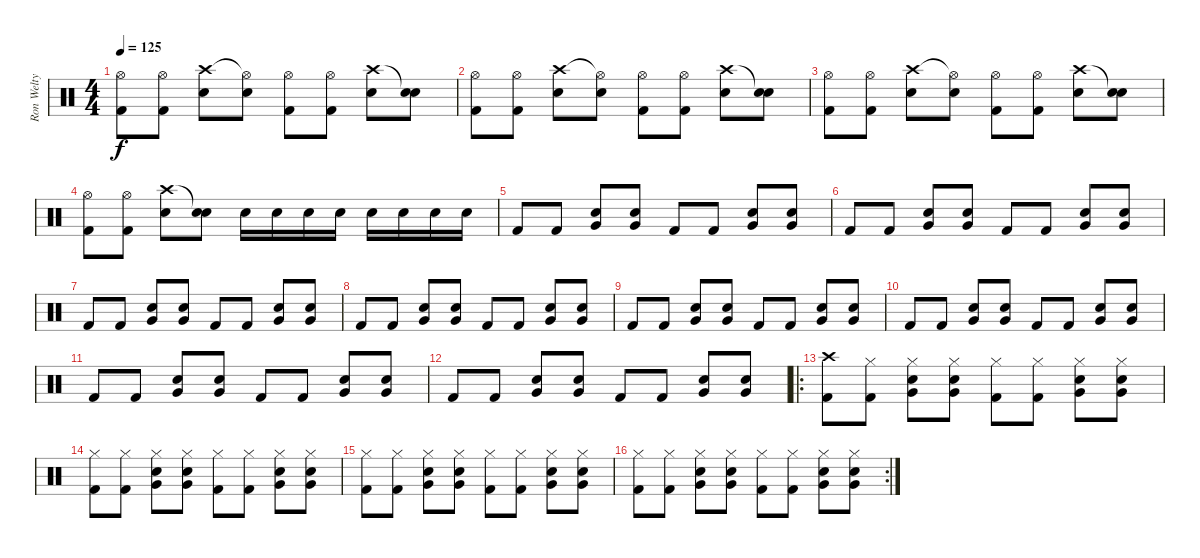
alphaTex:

\track ("Ron Welty" "Ron Welty") {instrument percussion}
\staff {score}
\articulation defaults
\ts (4 4)
\tempo 125
\clef neutral
\ks c
("Kick (hit) 2" "Hi-Hat (open)").8{dy f} ("Kick (hit) 2" "Hi-Hat (open)").8 ("Snare (hit) 2" "Crash high (hit)").8 ("Snare (hit) 2" "Hi-Hat (open)"{t}).8 ("Kick (hit) 2" "Hi-Hat (open)").8 ("Kick (hit) 2" "Hi-Hat (open)").8 ("Snare (hit) 2" "Crash high (hit)").8 ("Snare (hit) 2" "Snare (hit)"{t}).8 |
("Kick (hit) 2" "Hi-Hat (open)").8 ("Kick (hit) 2" "Hi-Hat (open)").8 ("Snare (hit) 2" "Crash high (hit)").8 ("Snare (hit) 2" "Hi-Hat (open)"{t}).8 ("Kick (hit) 2" "Hi-Hat (open)").8 ("Kick (hit) 2" "Hi-Hat (open)").8 ("Snare (hit) 2" "Crash high (hit)").8 ("Snare (hit) 2" "Snare (hit)"{t}).8 |
("Kick (hit) 2" "Hi-Hat (open)").8 ("Kick (hit) 2" "Hi-Hat (open)").8 ("Snare (hit) 2" "Crash high (hit)").8 ("Snare (hit) 2" "Hi-Hat (open)"{t}).8 ("Kick (hit) 2" "Hi-Hat (open)").8 ("Kick (hit) 2" "Hi-Hat (open)").8 ("Snare (hit) 2" "Crash high (hit)").8 ("Snare (hit) 2" "Snare (hit)"{t}).8 |
("Kick (hit) 2" "Hi-Hat (open)").8 ("Kick (hit) 2" "Hi-Hat (open)").8 ("Snare (hit) 2" "Crash high (hit)").8 ("Snare (hit) 2" "Snare (hit)"{t}).8 "Snare (hit) 2".16 "Snare (hit) 2".16 "Snare (hit) 2".16 "Snare (hit) 2".16 "Snare (hit) 2".16 "Snare (hit) 2".16 "Snare (hit) 2".16 "Snare (hit) 2".16 |
"Kick (hit) 2".8 "Kick (hit) 2".8 ("Snare (hit) 2" "Very Low Tom (hit)").8 ("Snare (hit) 2" "Very Low Tom (hit)").8 "Kick (hit) 2".8 "Kick (hit) 2".8 ("Snare (hit) 2" "Very Low Tom (hit)").8 ("Snare (hit) 2" "Very Low Tom (hit)").8 |
"Kick (hit) 2".8 "Kick (hit) 2".8 ("Snare (hit) 2" "Very Low Tom (hit)").8 ("Snare (hit) 2" "Very Low Tom (hit)").8 "Kick (hit) 2".8 "Kick (hit) 2".8 ("Snare (hit) 2" "Very Low Tom (hit)").8 ("Snare (hit) 2" "Very Low Tom (hit)").8 |
"Kick (hit) 2".8 "Kick (hit) 2".8 ("Snare (hit) 2" "Very Low Tom (hit)").8 ("Snare (hit) 2" "Very Low Tom (hit)").8 "Kick (hit) 2".8 "Kick (hit) 2".8 ("Snare (hit) 2" "Very Low Tom (hit)").8 ("Snare (hit) 2" "Very Low Tom (hit)").8 |
"Kick (hit) 2".8 "Kick (hit) 2".8 ("Snare (hit) 2" "Very Low Tom (hit)").8 ("Snare (hit) 2" "Very Low Tom (hit)").8 "Kick (hit) 2".8 "Kick (hit) 2".8 ("Snare (hit) 2" "Very Low Tom (hit)").8 ("Snare (hit) 2" "Very Low Tom (hit)").8 |
"Kick (hit) 2".8 "Kick (hit) 2".8 ("Snare (hit) 2" "Very Low Tom (hit)").8 ("Snare (hit) 2" "Very Low Tom (hit)").8 "Kick (hit) 2".8 "Kick (hit) 2".8 ("Snare (hit) 2" "Very Low Tom (hit)").8 ("Snare (hit) 2" "Very Low Tom (hit)").8 |
"Kick (hit) 2".8 "Kick (hit) 2".8 ("Snare (hit) 2" "Very Low Tom (hit)").8 ("Snare (hit) 2" "Very Low Tom (hit)").8 "Kick (hit) 2".8 "Kick (hit) 2".8 ("Snare (hit) 2" "Very Low Tom (hit)").8 ("Snare (hit) 2" "Very Low Tom (hit)").8 |
"Kick (hit) 2".8 "Kick (hit) 2".8 ("Snare (hit) 2" "Very Low Tom (hit)").8 ("Snare (hit) 2" "Very Low Tom (hit)").8 "Kick (hit) 2".8 "Kick (hit) 2".8 ("Snare (hit) 2" "Very Low Tom (hit)").8 ("Snare (hit) 2" "Very Low Tom (hit)").8 |
"Kick (hit) 2".8 "Kick (hit) 2".8 ("Snare (hit) 2" "Very Low Tom (hit)").8 ("Snare (hit) 2" "Very Low Tom (hit)").8 "Kick (hit) 2".8 "Kick (hit) 2".8 ("Snare (hit) 2" "Very Low Tom (hit)").8 ("Snare (hit) 2" "Very Low Tom (hit)").8 |
\ro
("Kick (hit) 2" "Crash high (hit)").8 ("Kick (hit) 2" "Hi-Hat (closed)").8 ("Snare (hit) 2" "Very Low Tom (hit)" "Hi-Hat (closed)").8 ("Snare (hit) 2" "Very Low Tom (hit)" "Hi-Hat (closed)").8 ("Kick (hit) 2" "Hi-Hat (closed)").8 ("Kick (hit) 2" "Hi-Hat (closed)").8 ("Snare (hit) 2" "Very Low Tom (hit)" "Hi-Hat (closed)").8 ("Snare (hit) 2" "Very Low Tom (hit)" "Hi-Hat (closed)").8 |
("Kick (hit) 2" "Hi-Hat (closed)").8 ("Kick (hit) 2" "Hi-Hat (closed)").8 ("Snare (hit) 2" "Very Low Tom (hit)" "Hi-Hat (closed)").8 ("Snare (hit) 2" "Very Low Tom (hit)" "Hi-Hat (closed)").8 ("Kick (hit) 2" "Hi-Hat (closed)").8 ("Kick (hit) 2" "Hi-Hat (closed)").8 ("Snare (hit) 2" "Very Low Tom (hit)" "Hi-Hat (closed)").8 ("Snare (hit) 2" "Very Low Tom (hit)" "Hi-Hat (closed)").8 |
("Kick (hit) 2" "Hi-Hat (closed)").8 ("Kick (hit) 2" "Hi-Hat (closed)").8 ("Snare (hit) 2" "Very Low Tom (hit)" "Hi-Hat (closed)").8 ("Snare (hit) 2" "Very Low Tom (hit)" "Hi-Hat (closed)").8 ("Kick (hit) 2" "Hi-Hat (closed)").8 ("Kick (hit) 2" "Hi-Hat (closed)").8 ("Snare (hit) 2" "Very Low Tom (hit)" "Hi-Hat (closed)").8 ("Snare (hit) 2" "Very Low Tom (hit)" "Hi-Hat (closed)").8 |
\rc 2
("Kick (hit) 2" "Hi-Hat (closed)").8 ("Kick (hit) 2" "Hi-Hat (closed)").8 ("Snare (hit) 2" "Very Low Tom (hit)" "Hi-Hat (closed)").8 ("Snare (hit) 2" "Very Low Tom (hit)" "Hi-Hat (closed)").8 ("Kick (hit) 2" "Hi-Hat (closed)").8 ("Kick (hit) 2" "Hi-Hat (closed)").8 ("Snare (hit) 2" "Very Low Tom (hit)" "Hi-Hat (closed)").8 ("Snare (hit) 2" "Very Low Tom (hit)" "Hi-Hat (closed)").8
